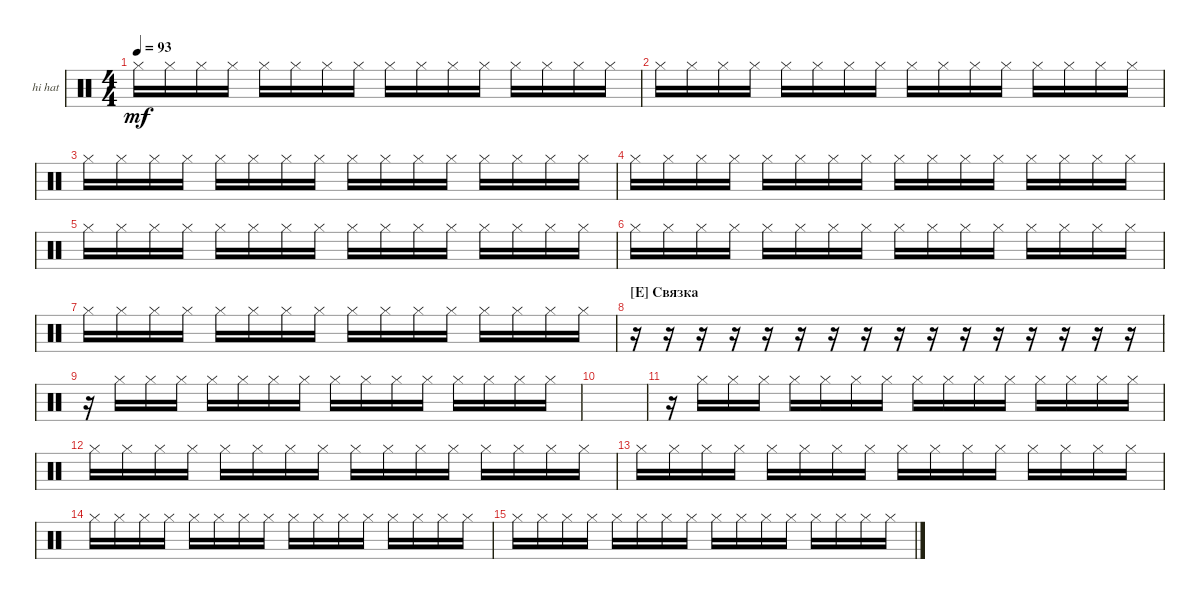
\bracketExtendMode groupsimilarinstruments
\firstSystemTrackNameOrientation horizontal
\otherSystemsTrackNameOrientation horizontal
\track ("hi hat" "hi hat") {instrument percussion}
\staff {score}
\articulation defaults
\ts (4 4)
\tempo 93
\clef neutral
\scale
0.333333
\ks c "Hi-Hat (closed)".16{dy mf} "Hi-Hat (closed)".16 "Hi-Hat (closed)".16 "Hi-Hat (closed)".16 "Hi-Hat (closed)".16 "Hi-Hat (closed)".16 "Hi-Hat (closed)".16 "Hi-Hat (closed)".16 "Hi-Hat (closed)".16 "Hi-Hat (closed)".16 "Hi-Hat (closed)".16 "Hi-Hat (closed)".16 "Hi-Hat (closed)".16 "Hi-Hat (closed)".16 "Hi-Hat (closed)".16 "Hi-Hat (closed)".16
|
\scale
0.333333 "Hi-Hat (closed)".16 "Hi-Hat (closed)".16 "Hi-Hat (closed)".16 "Hi-Hat (closed)".16 "Hi-Hat (closed)".16 "Hi-Hat (closed)".16 "Hi-Hat (closed)".16 "Hi-Hat (closed)".16 "Hi-Hat (closed)".16 "Hi-Hat (closed)".16 "Hi-Hat (closed)".16 "Hi-Hat (closed)".16 "Hi-Hat (closed)".16 "Hi-Hat (closed)".16 "Hi-Hat (closed)".16 "Hi-Hat (closed)".16 |
\scale
0.333333 "Hi-Hat (closed)".16 "Hi-Hat (closed)".16 "Hi-Hat (closed)".16 "Hi-Hat (closed)".16 "Hi-Hat (closed)".16 "Hi-Hat (closed)".16 "Hi-Hat (closed)".16 "Hi-Hat (closed)".16 "Hi-Hat (closed)".16 "Hi-Hat (closed)".16 "Hi-Hat (closed)".16 "Hi-Hat (closed)".16 "Hi-Hat (closed)".16 "Hi-Hat (closed)".16 "Hi-Hat (closed)".16 "Hi-Hat (closed)".16 |
\scale
0.333333 "Hi-Hat (closed)".16 "Hi-Hat (closed)".16 "Hi-Hat (closed)".16 "Hi-Hat (closed)".16 "Hi-Hat (closed)".16 "Hi-Hat (closed)".16 "Hi-Hat (closed)".16 "Hi-Hat (closed)".16 "Hi-Hat (closed)".16 "Hi-Hat (closed)".16 "Hi-Hat (closed)".16 "Hi-Hat (closed)".16 "Hi-Hat (closed)".16 "Hi-Hat (closed)".16 "Hi-Hat (closed)".16 "Hi-Hat (closed)".16 |
\scale
0.333333 "Hi-Hat (closed)".16 "Hi-Hat (closed)".16 "Hi-Hat (closed)".16 "Hi-Hat (closed)".16 "Hi-Hat (closed)".16 "Hi-Hat (closed)".16 "Hi-Hat (closed)".16 "Hi-Hat (closed)".16 "Hi-Hat (closed)".16 "Hi-Hat (closed)".16 "Hi-Hat (closed)".16 "Hi-Hat (closed)".16 "Hi-Hat (closed)".16 "Hi-Hat (closed)".16 "Hi-Hat (closed)".16 "Hi-Hat (closed)".16 |
\scale
0.333333 "Hi-Hat (closed)".16 "Hi-Hat (closed)".16 "Hi-Hat (closed)".16 "Hi-Hat (closed)".16 "Hi-Hat (closed)".16 "Hi-Hat (closed)".16 "Hi-Hat (closed)".16 "Hi-Hat (closed)".16 "Hi-Hat (closed)".16 "Hi-Hat (closed)".16 "Hi-Hat (closed)".16 "Hi-Hat (closed)".16 "Hi-Hat (closed)".16 "Hi-Hat (closed)".16 "Hi-Hat (closed)".16 "Hi-Hat (closed)".16 |
\scale
0.333333 "Hi-Hat (closed)".16 "Hi-Hat (closed)".16 "Hi-Hat (closed)".16 "Hi-Hat (closed)".16 "Hi-Hat (closed)".16 "Hi-Hat (closed)".16 "Hi-Hat (closed)".16 "Hi-Hat (closed)".16 "Hi-Hat (closed)".16 "Hi-Hat (closed)".16 "Hi-Hat (closed)".16 "Hi-Hat (closed)".16 "Hi-Hat (closed)".16 "Hi-Hat (closed)".16 "Hi-Hat (closed)".16 "Hi-Hat (closed)".16 |
\section ("E" "Связка")
\scale
0.333333 r.16 r.16 r.16 r.16 r.16 r.16 r.16 r.16 r.16 r.16 r.16 r.16 r.16 r.16 r.16 r.16 |
\scale
0.333333 r.16 "Hi-Hat (closed)".16 "Hi-Hat (closed)".16 "Hi-Hat (closed)".16 "Hi-Hat (closed)".16 "Hi-Hat (closed)".16 "Hi-Hat (closed)".16 "Hi-Hat (closed)".16 "Hi-Hat (closed)".16 "Hi-Hat (closed)".16 "Hi-Hat (closed)".16 "Hi-Hat (closed)".16 "Hi-Hat (closed)".16 "Hi-Hat (closed)".16 "Hi-Hat (closed)".16 "Hi-Hat (closed)".16 |
\scale
0.333333 |
\scale
0.333333 r.16 "Hi-Hat (closed)".16 "Hi-Hat (closed)".16 "Hi-Hat (closed)".16 "Hi-Hat (closed)".16 "Hi-Hat (closed)".16 "Hi-Hat (closed)".16 "Hi-Hat (closed)".16 "Hi-Hat (closed)".16 "Hi-Hat (closed)".16 "Hi-Hat (closed)".16 "Hi-Hat (closed)".16 "Hi-Hat (closed)".16 "Hi-Hat (closed)".16 "Hi-Hat (closed)".16 "Hi-Hat (closed)".16 |
\scale
0.333333 "Hi-Hat (closed)".16 "Hi-Hat (closed)".16 "Hi-Hat (closed)".16 "Hi-Hat (closed)".16 "Hi-Hat (closed)".16 "Hi-Hat (closed)".16 "Hi-Hat (closed)".16 "Hi-Hat (closed)".16 "Hi-Hat (closed)".16 "Hi-Hat (closed)".16 "Hi-Hat (closed)".16 "Hi-Hat (closed)".16 "Hi-Hat (closed)".16 "Hi-Hat (closed)".16 "Hi-Hat (closed)".16 "Hi-Hat (closed)".16 |
\scale
0.333333 "Hi-Hat (closed)".16 "Hi-Hat (closed)".16 "Hi-Hat (closed)".16 "Hi-Hat (closed)".16 "Hi-Hat (closed)".16 "Hi-Hat (closed)".16 "Hi-Hat (closed)".16 "Hi-Hat (closed)".16 "Hi-Hat (closed)".16 "Hi-Hat (closed)".16 "Hi-Hat (closed)".16 "Hi-Hat (closed)".16 "Hi-Hat (closed)".16 "Hi-Hat (closed)".16 "Hi-Hat (closed)".16 "Hi-Hat (closed)".16 |
\scale
0.333333 "Hi-Hat (closed)".16 "Hi-Hat (closed)".16 "Hi-Hat (closed)".16 "Hi-Hat (closed)".16 "Hi-Hat (closed)".16 "Hi-Hat (closed)".16 "Hi-Hat (closed)".16 "Hi-Hat (closed)".16 "Hi-Hat (closed)".16 "Hi-Hat (closed)".16 "Hi-Hat (closed)".16 "Hi-Hat (closed)".16 "Hi-Hat (closed)".16 "Hi-Hat (closed)".16 "Hi-Hat (closed)".16 "Hi-Hat (closed)".16 |
\scale
0.333333 "Hi-Hat (closed)".16 "Hi-Hat (closed)".16 "Hi-Hat (closed)".16 "Hi-Hat (closed)".16 "Hi-Hat (closed)".16 "Hi-Hat (closed)".16 "Hi-Hat (closed)".16 "Hi-Hat (closed)".16 "Hi-Hat (closed)".16 "Hi-Hat (closed)".16 "Hi-Hat (closed)".16 "Hi-Hat (closed)".16 "Hi-Hat (closed)".16 "Hi-Hat (closed)".16 "Hi-Hat (closed)".16 "Hi-Hat (closed)".16 |
\scale
0.333333
